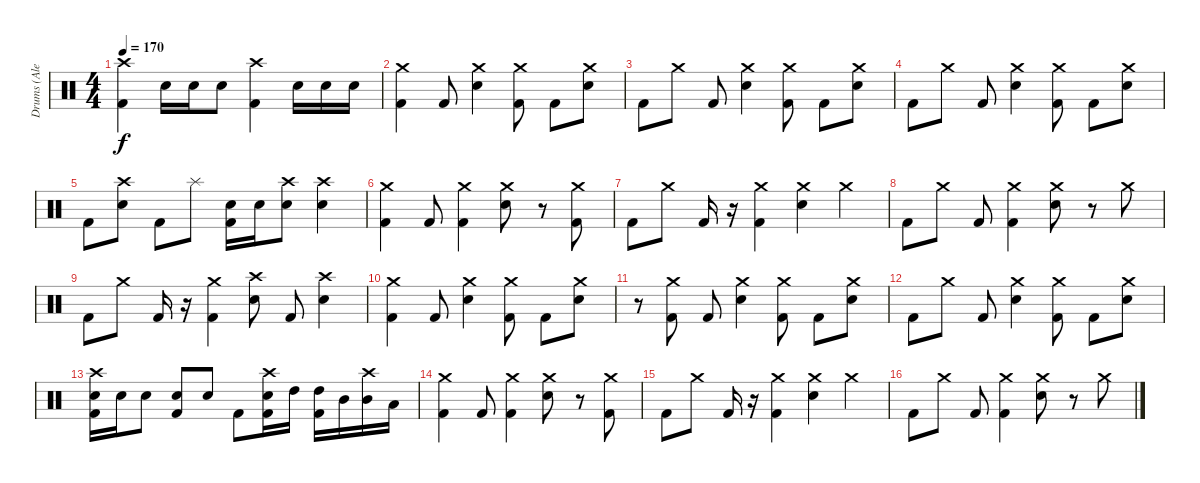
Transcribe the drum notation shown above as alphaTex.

\track ("Drums (Alex Shelnutt)" "Drums (Ale") {instrument percussion}
\staff {score}
\articulation defaults
\ts (4 4)
\tempo 170
\clef neutral
\ks c
("Crash high (hit)" "Kick (hit) 2").4{dy f} "Electric Snare (hit)".16 "Electric Snare (hit)".16 "Electric Snare (hit)".8 ("Crash high (hit)" "Kick (hit) 2").4 "Electric Snare (hit)".16 "Electric Snare (hit)".16 "Electric Snare (hit)".16 |
("Crash medium (hit)" "Kick (hit) 2").4 "Kick (hit) 2".8 ("Crash medium (hit)" "Electric Snare (hit)").4 ("Crash medium (hit)" "Kick (hit) 2").8 "Kick (hit) 2".8 ("Crash medium (hit)" "Electric Snare (hit)").8 |
"Kick (hit) 2".8 "Crash medium (hit)".8 "Kick (hit) 2".8 ("Crash medium (hit)" "Electric Snare (hit)").4 ("Crash medium (hit)" "Kick (hit) 2").8 "Kick (hit) 2".8 ("Crash medium (hit)" "Electric Snare (hit)").8 |
"Kick (hit) 2".8 "Crash medium (hit)".8 "Kick (hit) 2".8 ("Crash medium (hit)" "Electric Snare (hit)").4 ("Crash medium (hit)" "Kick (hit) 2").8 "Kick (hit) 2".8 ("Crash medium (hit)" "Electric Snare (hit)").8 |
"Kick (hit) 2".8 ("Crash high (hit)" "Electric Snare (hit)").8 "Kick (hit) 2".8 "Splash (hit)".8 ("Electric Snare (hit)" "Kick (hit) 2").16 "Electric Snare (hit)".16 ("Crash high (hit)" "Electric Snare (hit)").8 ("Crash high (hit)" "Electric Snare (hit)").4 |
("Crash medium (hit)" "Kick (hit) 2").4 "Kick (hit) 2".8 ("Crash medium (hit)" "Kick (hit) 2").4 ("Crash medium (hit)" "Electric Snare (hit)").8 r.8 ("Crash medium (hit)" "Kick (hit) 2").8 |
"Kick (hit) 2".8 "Crash medium (hit)".8 "Kick (hit) 2".16 r.16 ("Crash medium (hit)" "Kick (hit) 2").4 ("Crash medium (hit)" "Electric Snare (hit)").4 "Crash medium (hit)".4 |
"Kick (hit) 2".8 "Crash medium (hit)".8 "Kick (hit) 2".8 ("Crash medium (hit)" "Kick (hit) 2").4 ("Crash medium (hit)" "Electric Snare (hit)").8 r.8 "Crash medium (hit)".8 |
"Kick (hit) 2".8 "Crash medium (hit)".8 "Kick (hit) 2".16 r.16 ("Crash medium (hit)" "Kick (hit) 2").4 ("Crash high (hit)" "Electric Snare (hit)").8 "Kick (hit) 2".8 ("Crash high (hit)" "Electric Snare (hit)").4 |
("Crash medium (hit)" "Kick (hit) 2").4 "Kick (hit) 2".8 ("Crash medium (hit)" "Electric Snare (hit)").4 ("Crash medium (hit)" "Kick (hit) 2").8 "Kick (hit) 2".8 ("Crash medium (hit)" "Electric Snare (hit)").8 |
r.8 ("Crash medium (hit)" "Kick (hit) 2").8 "Kick (hit) 2".8 ("Crash medium (hit)" "Electric Snare (hit)").4 ("Crash medium (hit)" "Kick (hit) 2").8 "Kick (hit) 2".8 ("Crash medium (hit)" "Electric Snare (hit)").8 |
"Kick (hit) 2".8 "Crash medium (hit)".8 "Kick (hit) 2".8 ("Crash medium (hit)" "Electric Snare (hit)").4 ("Crash medium (hit)" "Kick (hit) 2").8 "Kick (hit) 2".8 ("Crash medium (hit)" "Electric Snare (hit)").8 |
("Crash high (hit)" "Electric Snare (hit)" "Kick (hit) 2").16 "Electric Snare (hit)".16 "Electric Snare (hit)".8 ("Electric Snare (hit)" "Kick (hit) 2").8 "Electric Snare (hit)".8 "Kick (hit) 2".8 ("Crash high (hit)" "Electric Snare (hit)" "Kick (hit) 2").16 "High Tom (hit)".16 ("High Tom (hit)" "Kick (hit) 2").16 "Mid Tom (hit)".16 ("Crash high (hit)" "Mid Tom (hit)").16 "Low Tom (hit)".16 |
("Crash medium (hit)" "Kick (hit) 2").4 "Kick (hit) 2".8 ("Crash medium (hit)" "Kick (hit) 2").4 ("Crash medium (hit)" "Electric Snare (hit)").8 r.8 ("Crash medium (hit)" "Kick (hit) 2").8 |
"Kick (hit) 2".8 "Crash medium (hit)".8 "Kick (hit) 2".16 r.16 ("Crash medium (hit)" "Kick (hit) 2").4 ("Crash medium (hit)" "Electric Snare (hit)").4 "Crash medium (hit)".4 |
"Kick (hit) 2".8 "Crash medium (hit)".8 "Kick (hit) 2".8 ("Crash medium (hit)" "Kick (hit) 2").4 ("Crash medium (hit)" "Electric Snare (hit)").8 r.8 "Crash medium (hit)".8
